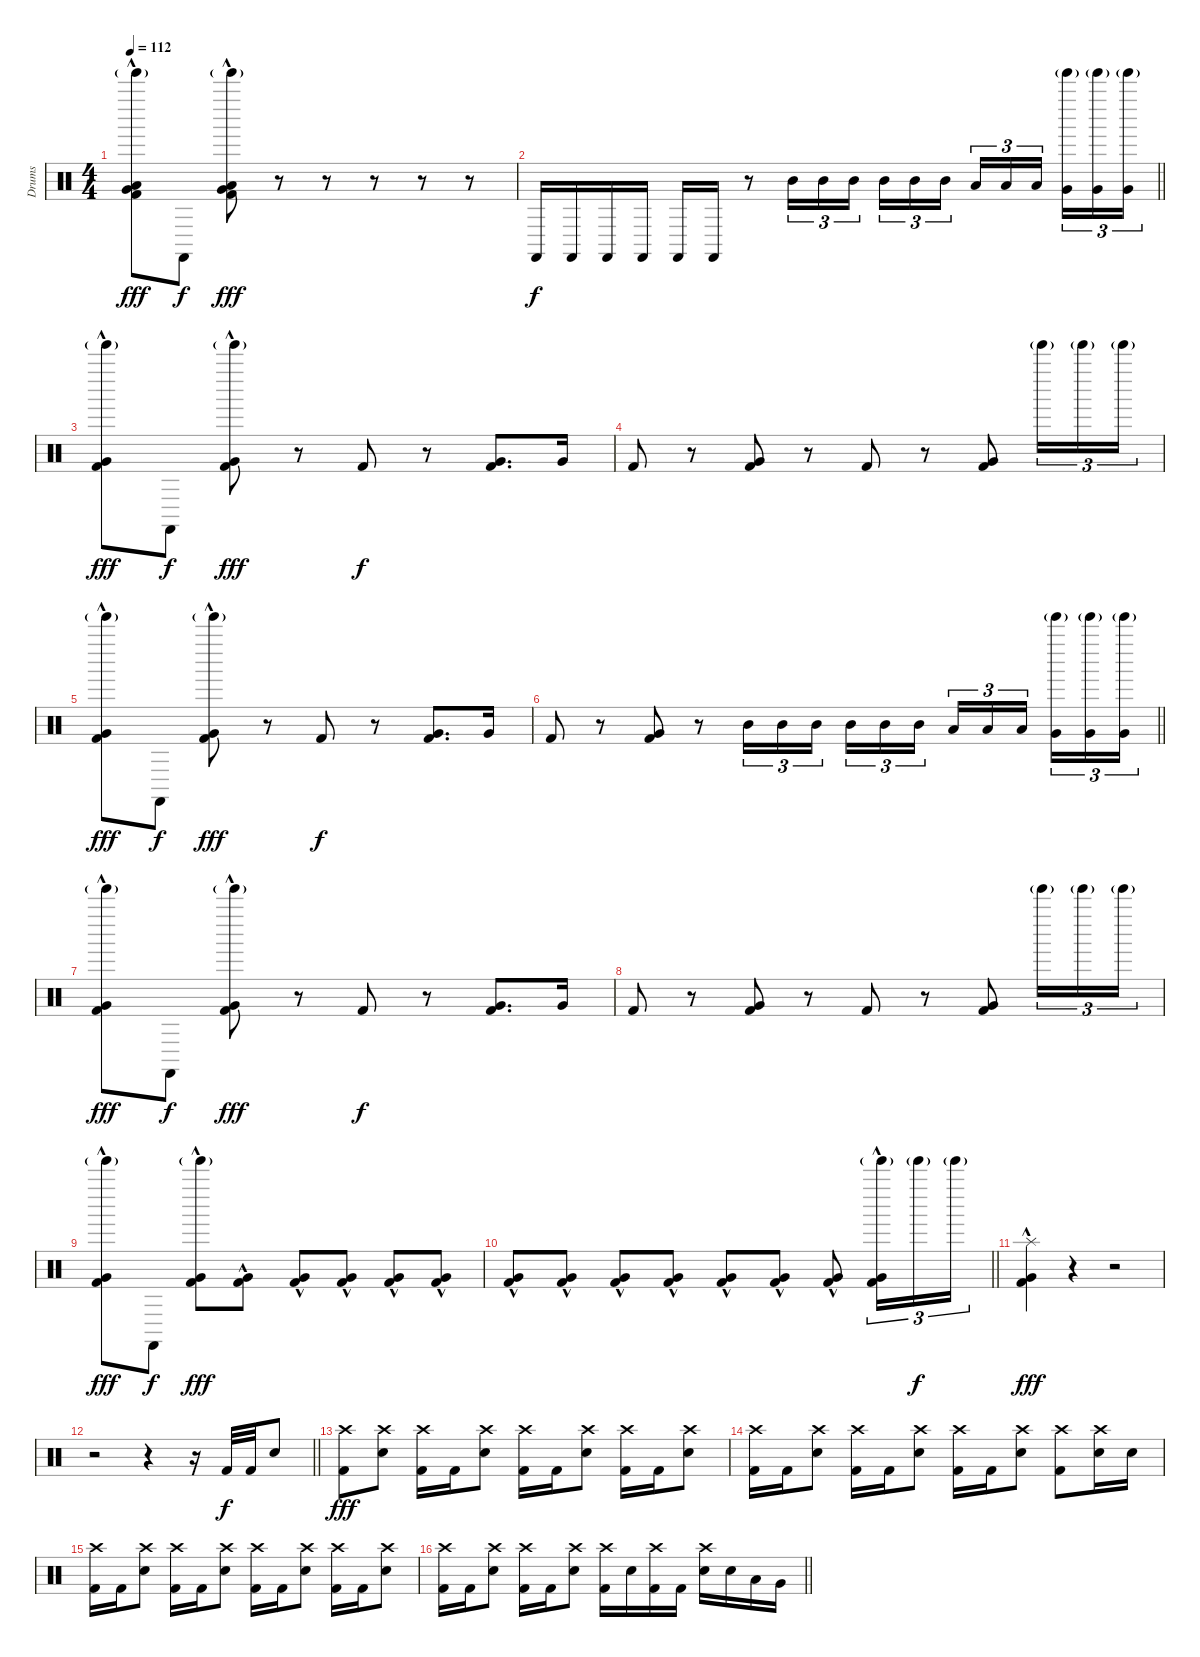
\track ("Drums" "Drums") {instrument percussion}
\staff {score}
\articulation defaults
\ts (4 4)
\tempo 112
\clef neutral
\ks c
("Tinkle Bell (hit)"{g} "Low Tom (hit)"{hac} "Very Low Tom (hit)"{hac} "Kick (hit) 2"{hac}).8{dy fff} "Castanets (hit)".8{dy f} ("Tinkle Bell (hit)"{g} "Low Tom (hit)"{hac} "Very Low Tom (hit)"{hac} "Kick (hit) 2"{hac}).8{dy fff} r.8 r.8 r.8 r.8 r.8 |
\barLineRight lightlight "Castanets (hit)".16{dy f} "Castanets (hit)".16 "Castanets (hit)".16 "Castanets (hit)".16 "Castanets (hit)".16 "Castanets (hit)".16
r.8 "Mid Tom (hit)".16{tu (3 2)} "Mid Tom (hit)".16{tu (3 2)} "Mid Tom (hit)".16{tu (3 2) beam splitsecondary} "Mid Tom (hit)".16{tu (3 2)} "Mid Tom (hit)".16{tu (3 2)} "Mid Tom (hit)".16{tu (3 2)} "Low Tom (hit)".16{tu (3 2)} "Low Tom (hit)".16{tu (3 2)} "Low Tom (hit)".16{tu (3 2) beam splitsecondary} ("Tinkle Bell (hit)"{g} "Very Low Tom (hit)").16{tu (3 2)} ("Tinkle Bell (hit)"{g} "Very Low Tom (hit)").16{tu (3 2)} ("Tinkle Bell (hit)"{g} "Very Low Tom (hit)").16{tu (3 2)} |
("Tinkle Bell (hit)"{g} "Very Low Tom (hit)"{hac} "Kick (hit) 2"{hac}).8{dy fff} "Castanets (hit)".8{dy f} ("Tinkle Bell (hit)"{g} "Very Low Tom (hit)"{hac} "Kick (hit) 2"{hac}).8{dy fff} r.8 "Kick (hit) 2".8{dy f} r.8 ("Very Low Tom (hit)" "Kick (hit) 2").8{d} "Very Low Tom (hit)".16 |
"Kick (hit) 2".8 r.8 ("Very Low Tom (hit)" "Kick (hit) 2").8 r.8 "Kick (hit) 2".8 r.8 ("Very Low Tom (hit)" "Kick (hit) 2").8 "Tinkle Bell (hit)"{g}.16{tu (3 2)} "Tinkle Bell (hit)"{g}.16{tu (3 2)} "Tinkle Bell (hit)"{g}.16{tu (3 2)} |
("Tinkle Bell (hit)"{g} "Very Low Tom (hit)"{hac} "Kick (hit) 2"{hac}).8{dy fff} "Castanets (hit)".8{dy f} ("Tinkle Bell (hit)"{g} "Very Low Tom (hit)"{hac} "Kick (hit) 2"{hac}).8{dy fff} r.8 "Kick (hit) 2".8{dy f} r.8 ("Very Low Tom (hit)" "Kick (hit) 2").8{d} "Very Low Tom (hit)".16 |
\barLineRight lightlight "Kick (hit) 2".8
r.8 ("Very Low Tom (hit)" "Kick (hit) 2").8 r.8 "Mid Tom (hit)".16{tu (3 2)} "Mid Tom (hit)".16{tu (3 2)} "Mid Tom (hit)".16{tu (3 2) beam splitsecondary} "Mid Tom (hit)".16{tu (3 2)} "Mid Tom (hit)".16{tu (3 2)} "Mid Tom (hit)".16{tu (3 2)} "Low Tom (hit)".16{tu (3 2)} "Low Tom (hit)".16{tu (3 2)} "Low Tom (hit)".16{tu (3 2) beam splitsecondary} ("Tinkle Bell (hit)"{g} "Very Low Tom (hit)").16{tu (3 2)} ("Tinkle Bell (hit)"{g} "Very Low Tom (hit)").16{tu (3 2)} ("Tinkle Bell (hit)"{g} "Very Low Tom (hit)").16{tu (3 2)} |
("Tinkle Bell (hit)"{g} "Very Low Tom (hit)"{hac} "Kick (hit) 2"{hac}).8{dy fff} "Castanets (hit)".8{dy f} ("Tinkle Bell (hit)"{g} "Very Low Tom (hit)"{hac} "Kick (hit) 2"{hac}).8{dy fff} r.8 "Kick (hit) 2".8{dy f} r.8 ("Very Low Tom (hit)" "Kick (hit) 2").8{d} "Very Low Tom (hit)".16 |
"Kick (hit) 2".8 r.8 ("Very Low Tom (hit)" "Kick (hit) 2").8 r.8 "Kick (hit) 2".8 r.8 ("Very Low Tom (hit)" "Kick (hit) 2").8 "Tinkle Bell (hit)"{g}.16{tu (3 2)} "Tinkle Bell (hit)"{g}.16{tu (3 2)} "Tinkle Bell (hit)"{g}.16{tu (3 2)} |
("Tinkle Bell (hit)"{g} "Very Low Tom (hit)"{hac} "Kick (hit) 2"{hac}).8{dy fff} "Castanets (hit)".8{dy f} ("Tinkle Bell (hit)"{g} "Very Low Tom (hit)"{hac} "Kick (hit) 2"{hac}).8{dy fff} ("Very Low Tom (hit)" "Kick (hit) 2"{hac}).8 ("Very Low Tom (hit)" "Kick (hit) 2"{hac}).8 ("Very Low Tom (hit)" "Kick (hit) 2"{hac}).8 ("Very Low Tom (hit)" "Kick (hit) 2"{hac}).8 ("Very Low Tom (hit)" "Kick (hit) 2"{hac}).8 |
\barLineRight lightlight
("Very Low Tom (hit)" "Kick (hit) 2"{hac}).8 ("Very Low Tom (hit)" "Kick (hit) 2"{hac}).8 ("Very Low Tom (hit)" "Kick (hit) 2"{hac}).8 ("Very Low Tom (hit)" "Kick (hit) 2"{hac}).8 ("Very Low Tom (hit)" "Kick (hit) 2"{hac}).8 ("Very Low Tom (hit)" "Kick (hit) 2"{hac}).8 ("Very Low Tom (hit)" "Kick (hit) 2"{hac}).8 ("Tinkle Bell (hit)"{g} "Very Low Tom (hit)" "Kick (hit) 2"{hac}).16{tu (3 2)} "Tinkle Bell (hit)"{g}.16{tu (3 2) dy f} "Tinkle Bell (hit)"{g}.16{tu (3 2)} |
("Splash (hit)" "Very Low Tom (hit)" "Kick (hit) 2"{hac}).4{dy fff} r.4 r.2 |
\barLineRight lightlight
r.2 r.4 r.16 "Kick (hit) 2".32{dy f} "Kick (hit) 2".32 "Electric Snare (hit)".8 |
("Crash high (hit)" "Kick (hit) 2").8{dy fff} ("Crash high (hit)" "Electric Snare (hit)").8 ("Crash high (hit)" "Kick (hit) 2").16 "Kick (hit) 2".16 ("Crash high (hit)" "Electric Snare (hit)").8 ("Crash high (hit)" "Kick (hit) 2").16 "Kick (hit) 2".16 ("Crash high (hit)" "Electric Snare (hit)").8 ("Crash high (hit)" "Kick (hit) 2").16 "Kick (hit) 2".16 ("Crash high (hit)" "Electric Snare (hit)").8 |
("Crash high (hit)" "Kick (hit) 2").16 "Kick (hit) 2".16 ("Crash high (hit)" "Electric Snare (hit)").8 ("Crash high (hit)" "Kick (hit) 2").16 "Kick (hit) 2".16 ("Crash high (hit)" "Electric Snare (hit)").8 ("Crash high (hit)" "Kick (hit) 2").16 "Kick (hit) 2".16 ("Crash high (hit)" "Electric Snare (hit)").8 ("Crash high (hit)" "Kick (hit) 2").8 ("Crash high (hit)" "Electric Snare (hit)").16 "Electric Snare (hit)".16 |
("Crash high (hit)" "Kick (hit) 2").16 "Kick (hit) 2".16 ("Crash high (hit)" "Electric Snare (hit)").8 ("Crash high (hit)" "Kick (hit) 2").16 "Kick (hit) 2".16 ("Crash high (hit)" "Electric Snare (hit)").8 ("Crash high (hit)" "Kick (hit) 2").16 "Kick (hit) 2".16 ("Crash high (hit)" "Electric Snare (hit)").8 ("Crash high (hit)" "Kick (hit) 2").16 "Kick (hit) 2".16 ("Crash high (hit)" "Electric Snare (hit)").8 |
\barLineRight lightlight
("Crash high (hit)" "Kick (hit) 2").16 "Kick (hit) 2".16 ("Crash high (hit)" "Electric Snare (hit)").8 ("Crash high (hit)" "Kick (hit) 2").16 "Kick (hit) 2".16 ("Crash high (hit)" "Electric Snare (hit)").8 ("Crash high (hit)" "Kick (hit) 2").16 "Electric Snare (hit)".16 ("Crash high (hit)" "Kick (hit) 2").16 "Kick (hit) 2".16 ("Crash high (hit)" "Electric Snare (hit)").16 "Electric Snare (hit)".16 "Low Tom (hit)".16 "Very Low Tom (hit)".16
